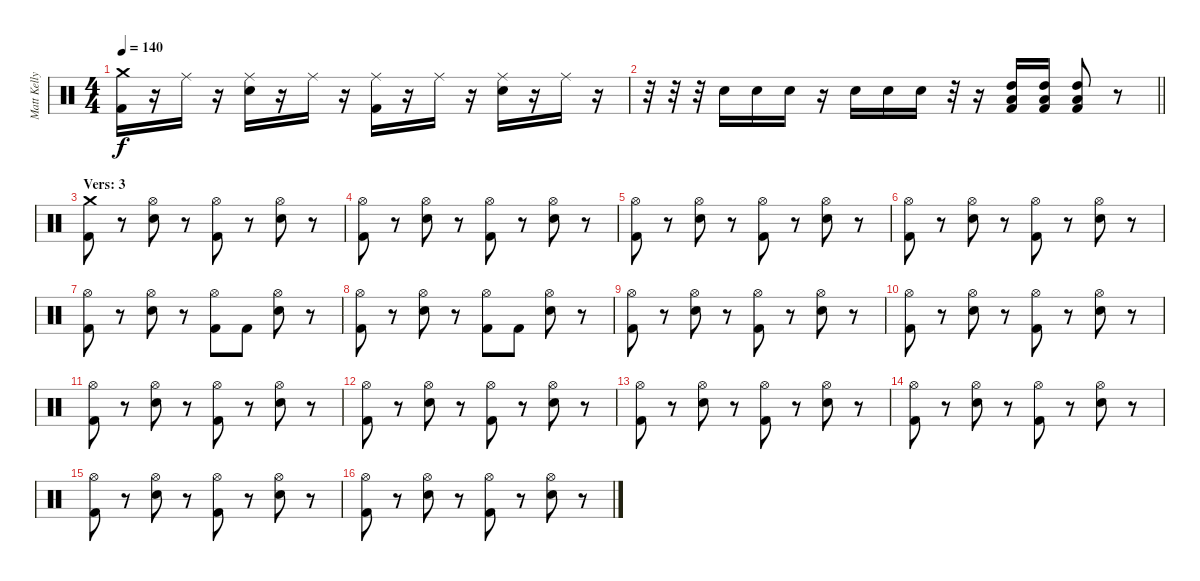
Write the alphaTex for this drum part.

\track ("Matt Kelly" "Matt Kelly") {instrument percussion}
\staff {score}
\articulation defaults
\ts (4 4)
\tempo 140
\clef neutral
\ks c
("Crash medium (hit)" "Kick (hit) 2").16{dy f} r.16 "Ride (middle)".16 r.16 ("Ride (middle)" "Snare (hit) 2").16 r.16 "Ride (middle)".16 r.16 ("Ride (middle)" "Kick (hit) 2").16 r.16 "Ride (middle)".16 r.16 ("Ride (middle)" "Snare (hit) 2").16 r.16 "Ride (middle)".16 r.16 |
\barLineRight lightlight
r.32 r.32 r.32 "Electric Snare (hit)".16 "Electric Snare (hit)".16 "Snare (hit) 2".16 r.16 "Electric Snare (hit)".16 "Electric Snare (hit)".16 "Snare (hit) 2".16 r.32 r.16 ("Low Floor Tom (hit)" "High Tom (hit)" "Kick (hit) 2").16 ("Low Floor Tom (hit)" "High Tom (hit)" "Kick (hit) 2").16 ("Low Floor Tom (hit)" "High Tom (hit)" "Kick (hit) 2").8 r.8 |
\section ("" "Vers: 3")
("Crash medium (hit)" "Kick (hit) 2").8 r.8 ("Hi-Hat (open)" "Electric Snare (hit)").8 r.8 ("Hi-Hat (open)" "Kick (hit) 2").8 r.8 ("Hi-Hat (open)" "Electric Snare (hit)").8 r.8 |
("Hi-Hat (open)" "Kick (hit) 2").8 r.8 ("Hi-Hat (open)" "Electric Snare (hit)").8 r.8 ("Hi-Hat (open)" "Kick (hit) 2").8 r.8 ("Hi-Hat (open)" "Electric Snare (hit)").8 r.8 |
("Hi-Hat (open)" "Kick (hit) 2").8 r.8 ("Hi-Hat (open)" "Electric Snare (hit)").8 r.8 ("Hi-Hat (open)" "Kick (hit) 2").8 r.8 ("Hi-Hat (open)" "Electric Snare (hit)").8 r.8 |
("Hi-Hat (open)" "Kick (hit) 2").8 r.8 ("Hi-Hat (open)" "Electric Snare (hit)").8 r.8 ("Hi-Hat (open)" "Kick (hit) 2").8 r.8 ("Hi-Hat (open)" "Electric Snare (hit)").8 r.8 |
("Hi-Hat (open)" "Kick (hit) 2").8 r.8 ("Hi-Hat (open)" "Electric Snare (hit)").8 r.8 ("Hi-Hat (open)" "Kick (hit) 2").8 "Kick (hit) 2".8 ("Hi-Hat (open)" "Electric Snare (hit)").8 r.8 |
("Hi-Hat (open)" "Kick (hit) 2").8 r.8 ("Hi-Hat (open)" "Electric Snare (hit)").8 r.8 ("Hi-Hat (open)" "Kick (hit) 2").8 "Kick (hit) 2".8 ("Hi-Hat (open)" "Electric Snare (hit)").8 r.8 |
("Hi-Hat (open)" "Kick (hit) 2").8 r.8 ("Hi-Hat (open)" "Electric Snare (hit)").8 r.8 ("Hi-Hat (open)" "Kick (hit) 2").8 r.8 ("Hi-Hat (open)" "Electric Snare (hit)").8 r.8 |
("Hi-Hat (open)" "Kick (hit) 2").8 r.8 ("Hi-Hat (open)" "Electric Snare (hit)").8 r.8 ("Hi-Hat (open)" "Kick (hit) 2").8 r.8 ("Hi-Hat (open)" "Electric Snare (hit)").8 r.8 |
("Hi-Hat (open)" "Kick (hit) 2").8 r.8 ("Hi-Hat (open)" "Electric Snare (hit)").8 r.8 ("Hi-Hat (open)" "Kick (hit) 2").8 r.8 ("Hi-Hat (open)" "Electric Snare (hit)").8 r.8 |
("Hi-Hat (open)" "Kick (hit) 2").8 r.8 ("Hi-Hat (open)" "Electric Snare (hit)").8 r.8 ("Hi-Hat (open)" "Kick (hit) 2").8 r.8 ("Hi-Hat (open)" "Electric Snare (hit)").8 r.8 |
("Hi-Hat (open)" "Kick (hit) 2").8 r.8 ("Hi-Hat (open)" "Electric Snare (hit)").8 r.8 ("Hi-Hat (open)" "Kick (hit) 2").8 r.8 ("Hi-Hat (open)" "Electric Snare (hit)").8 r.8 |
("Hi-Hat (open)" "Kick (hit) 2").8 r.8 ("Hi-Hat (open)" "Electric Snare (hit)").8 r.8 ("Hi-Hat (open)" "Kick (hit) 2").8 r.8 ("Hi-Hat (open)" "Electric Snare (hit)").8 r.8 |
("Hi-Hat (open)" "Kick (hit) 2").8 r.8 ("Hi-Hat (open)" "Electric Snare (hit)").8 r.8 ("Hi-Hat (open)" "Kick (hit) 2").8 r.8 ("Hi-Hat (open)" "Electric Snare (hit)").8 r.8 |
("Hi-Hat (open)" "Kick (hit) 2").8 r.8 ("Hi-Hat (open)" "Electric Snare (hit)").8 r.8 ("Hi-Hat (open)" "Kick (hit) 2").8 r.8 ("Hi-Hat (open)" "Electric Snare (hit)").8 r.8
